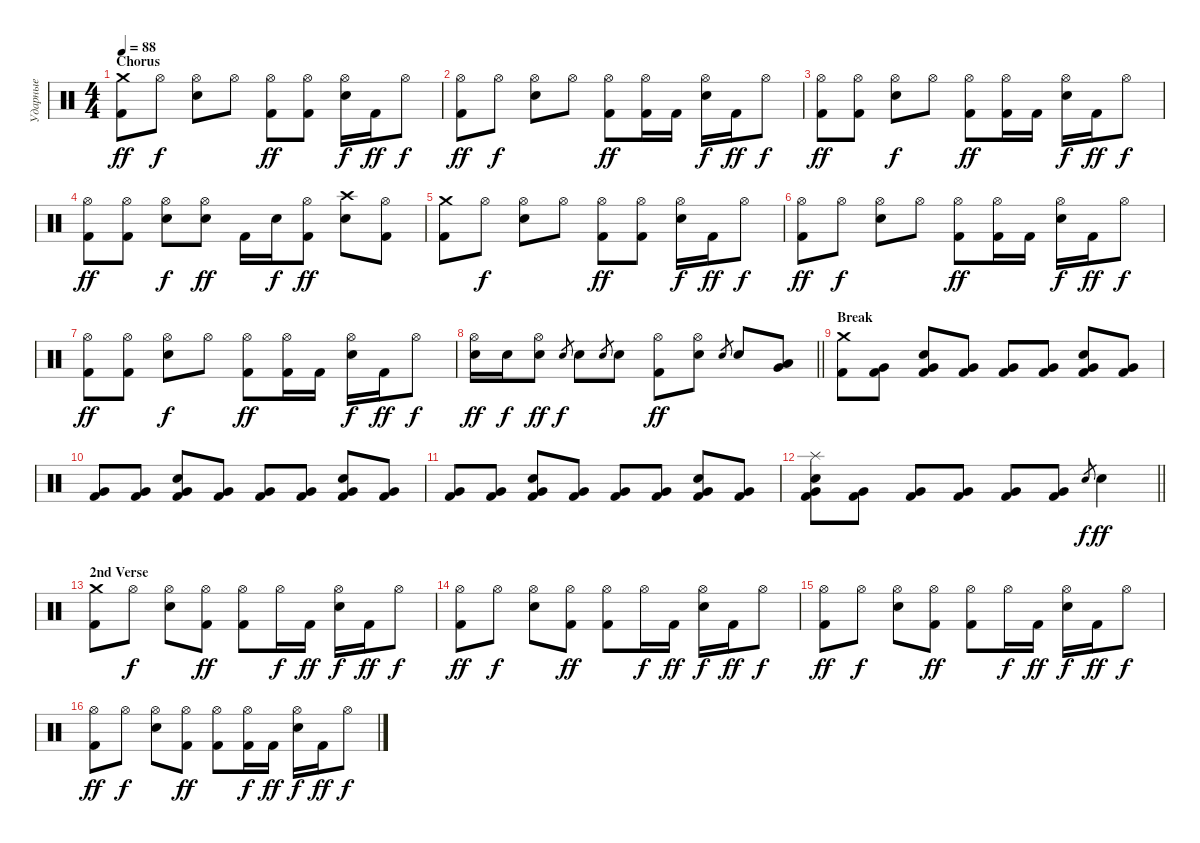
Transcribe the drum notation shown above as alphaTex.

\track ("Ударные" "Ударные") {instrument percussion}
\staff {score}
\articulation defaults
\ts (4 4)
\section ("" "Chorus")
\tempo 88
\clef neutral
\ks c
("Kick (hit) 2" "Crash medium (hit)").8{dy ff} "Hi-Hat (open)".8{dy f} ("Electric Snare (hit)" "Hi-Hat (open)").8 "Hi-Hat (open)".8 ("Kick (hit) 2" "Hi-Hat (open)").8{dy ff} ("Kick (hit) 2" "Hi-Hat (open)").8 ("Electric Snare (hit)" "Hi-Hat (open)").16{dy f} "Kick (hit) 2".16{dy ff} "Hi-Hat (open)".8{dy f} |
("Kick (hit) 2" "Hi-Hat (open)").8{dy ff} "Hi-Hat (open)".8{dy f} ("Electric Snare (hit)" "Hi-Hat (open)").8 "Hi-Hat (open)".8 ("Kick (hit) 2" "Hi-Hat (open)").8{dy ff} ("Kick (hit) 2" "Hi-Hat (open)").16 "Kick (hit) 2".16 ("Electric Snare (hit)" "Hi-Hat (open)").16{dy f} "Kick (hit) 2".16{dy ff} "Hi-Hat (open)".8{dy f} |
("Kick (hit) 2" "Hi-Hat (open)").8{dy ff} ("Kick (hit) 2" "Hi-Hat (open)").8 ("Electric Snare (hit)" "Hi-Hat (open)").8{dy f} "Hi-Hat (open)".8 ("Kick (hit) 2" "Hi-Hat (open)").8{dy ff} ("Kick (hit) 2" "Hi-Hat (open)").16 "Kick (hit) 2".16 ("Electric Snare (hit)" "Hi-Hat (open)").16{dy f} "Kick (hit) 2".16{dy ff} "Hi-Hat (open)".8{dy f} |
("Kick (hit) 2" "Hi-Hat (open)").8{dy ff} ("Kick (hit) 2" "Hi-Hat (open)").8 ("Electric Snare (hit)" "Hi-Hat (open)").8{dy f} ("Electric Snare (hit)" "Hi-Hat (open)").8{dy ff} "Kick (hit) 2".16 "Electric Snare (hit)".16{dy f} ("Kick (hit) 2" "Hi-Hat (open)").8{dy ff} ("Electric Snare (hit)" "Crash high (hit)").8 ("Kick (hit) 2" "Hi-Hat (open)").8 |
("Kick (hit) 2" "Crash medium (hit)").8 "Hi-Hat (open)".8{dy f} ("Electric Snare (hit)" "Hi-Hat (open)").8 "Hi-Hat (open)".8 ("Kick (hit) 2" "Hi-Hat (open)").8{dy ff} ("Kick (hit) 2" "Hi-Hat (open)").8 ("Electric Snare (hit)" "Hi-Hat (open)").16{dy f} "Kick (hit) 2".16{dy ff} "Hi-Hat (open)".8{dy f} |
("Kick (hit) 2" "Hi-Hat (open)").8{dy ff} "Hi-Hat (open)".8{dy f} ("Electric Snare (hit)" "Hi-Hat (open)").8 "Hi-Hat (open)".8 ("Kick (hit) 2" "Hi-Hat (open)").8{dy ff} ("Kick (hit) 2" "Hi-Hat (open)").16 "Kick (hit) 2".16 ("Electric Snare (hit)" "Hi-Hat (open)").16{dy f} "Kick (hit) 2".16{dy ff} "Hi-Hat (open)".8{dy f} |
("Kick (hit) 2" "Hi-Hat (open)").8{dy ff} ("Kick (hit) 2" "Hi-Hat (open)").8 ("Electric Snare (hit)" "Hi-Hat (open)").8{dy f} "Hi-Hat (open)".8 ("Kick (hit) 2" "Hi-Hat (open)").8{dy ff} ("Kick (hit) 2" "Hi-Hat (open)").16 "Kick (hit) 2".16 ("Electric Snare (hit)" "Hi-Hat (open)").16{dy f} "Kick (hit) 2".16{dy ff} "Hi-Hat (open)".8{dy f} |
\barLineRight lightlight
("Electric Snare (hit)" "Hi-Hat (open)").16{dy ff} "Electric Snare (hit)".16{dy f} ("Electric Snare (hit)" "Hi-Hat (open)").8{dy ff} "Electric Snare (hit)".8{gr dy f} "Electric Snare (hit)".8 "Electric Snare (hit)".8{gr} "Electric Snare (hit)".8 ("Kick (hit) 2" "Hi-Hat (open)").8{dy ff} ("Electric Snare (hit)" "Hi-Hat (open)").8 "Electric Snare (hit)".8{gr} "Electric Snare (hit)".8 ("Very Low Tom (hit)" "Low Tom (hit)").8 |
\section ("" "Break")
("Kick (hit) 2" "Crash medium (hit)").8 ("Kick (hit) 2" "Very Low Tom (hit)").8 ("Kick (hit) 2" "Very Low Tom (hit)" "Electric Snare (hit)").8 ("Kick (hit) 2" "Very Low Tom (hit)").8 ("Kick (hit) 2" "Very Low Tom (hit)").8 ("Kick (hit) 2" "Very Low Tom (hit)").8 ("Kick (hit) 2" "Very Low Tom (hit)" "Electric Snare (hit)").8 ("Kick (hit) 2" "Very Low Tom (hit)").8 |
("Kick (hit) 2" "Very Low Tom (hit)").8 ("Kick (hit) 2" "Very Low Tom (hit)").8 ("Kick (hit) 2" "Very Low Tom (hit)" "Electric Snare (hit)").8 ("Kick (hit) 2" "Very Low Tom (hit)").8 ("Kick (hit) 2" "Very Low Tom (hit)").8 ("Kick (hit) 2" "Very Low Tom (hit)").8 ("Kick (hit) 2" "Very Low Tom (hit)" "Electric Snare (hit)").8 ("Kick (hit) 2" "Very Low Tom (hit)").8 |
("Kick (hit) 2" "Very Low Tom (hit)").8 ("Kick (hit) 2" "Very Low Tom (hit)").8 ("Kick (hit) 2" "Very Low Tom (hit)" "Electric Snare (hit)").8 ("Kick (hit) 2" "Very Low Tom (hit)").8 ("Kick (hit) 2" "Very Low Tom (hit)").8 ("Kick (hit) 2" "Very Low Tom (hit)").8 ("Kick (hit) 2" "Very Low Tom (hit)" "Electric Snare (hit)").8 ("Kick (hit) 2" "Very Low Tom (hit)").8 |
\barLineRight lightlight
("Kick (hit) 2" "Very Low Tom (hit)" "Electric Snare (hit)" "Splash (hit)").8 ("Kick (hit) 2" "Very Low Tom (hit)").8 ("Kick (hit) 2" "Very Low Tom (hit)").8 ("Kick (hit) 2" "Very Low Tom (hit)").8 ("Kick (hit) 2" "Very Low Tom (hit)").8 ("Kick (hit) 2" "Very Low Tom (hit)").8 "Electric Snare (hit)".8{gr dy f} "Electric Snare (hit)".4{dy ff} |
\section ("" "2nd Verse")
("Kick (hit) 2" "Crash medium (hit)").8 "Hi-Hat (open)".8{dy f} ("Electric Snare (hit)" "Hi-Hat (open)").8 ("Kick (hit) 2" "Hi-Hat (open)").8{dy ff} ("Kick (hit) 2" "Hi-Hat (open)").8 "Hi-Hat (open)".16{dy f} "Kick (hit) 2".16{dy ff} ("Electric Snare (hit)" "Hi-Hat (open)").16{dy f} "Kick (hit) 2".16{dy ff} "Hi-Hat (open)".8{dy f} |
("Kick (hit) 2" "Hi-Hat (open)").8{dy ff} "Hi-Hat (open)".8{dy f} ("Electric Snare (hit)" "Hi-Hat (open)").8 ("Kick (hit) 2" "Hi-Hat (open)").8{dy ff} ("Kick (hit) 2" "Hi-Hat (open)").8 "Hi-Hat (open)".16{dy f} "Kick (hit) 2".16{dy ff} ("Electric Snare (hit)" "Hi-Hat (open)").16{dy f} "Kick (hit) 2".16{dy ff} "Hi-Hat (open)".8{dy f} |
("Kick (hit) 2" "Hi-Hat (open)").8{dy ff} "Hi-Hat (open)".8{dy f} ("Electric Snare (hit)" "Hi-Hat (open)").8 ("Kick (hit) 2" "Hi-Hat (open)").8{dy ff} ("Kick (hit) 2" "Hi-Hat (open)").8 "Hi-Hat (open)".16{dy f} "Kick (hit) 2".16{dy ff} ("Electric Snare (hit)" "Hi-Hat (open)").16{dy f} "Kick (hit) 2".16{dy ff} "Hi-Hat (open)".8{dy f} |
("Kick (hit) 2" "Hi-Hat (open)").8{dy ff} "Hi-Hat (open)".8{dy f} ("Electric Snare (hit)" "Hi-Hat (open)").8 ("Kick (hit) 2" "Hi-Hat (open)").8{dy ff} ("Kick (hit) 2" "Hi-Hat (open)").8 ("Kick (hit) 2" "Hi-Hat (open)").16{dy f} "Kick (hit) 2".16{dy ff} ("Electric Snare (hit)" "Hi-Hat (open)").16{dy f} "Kick (hit) 2".16{dy ff} "Hi-Hat (open)".8{dy f}
